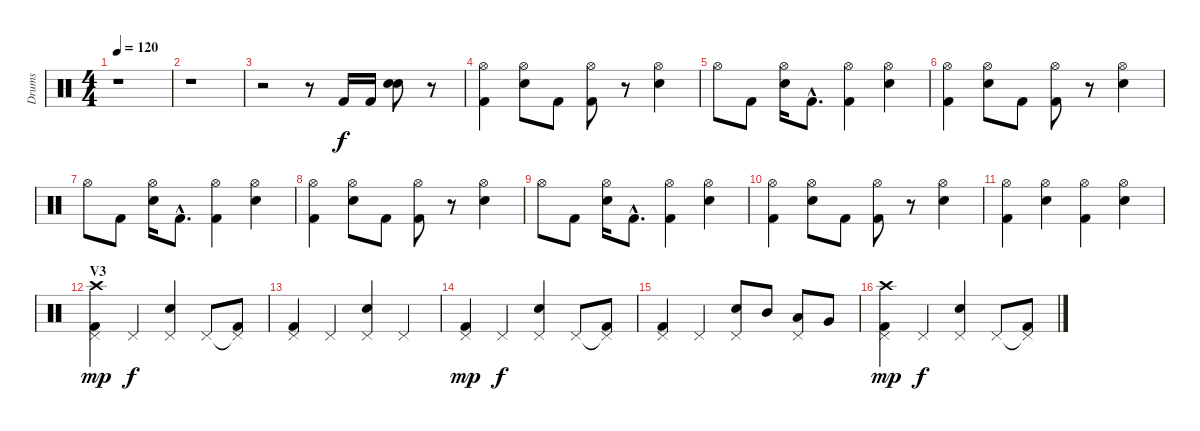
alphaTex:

\track ("Drums" "Drums") {instrument percussion}
\staff {score}
\articulation defaults
\ts (4 4)
\tempo 120
\clef neutral
\ks c
r.1{dy ff} |
r.1 |
r.2 r.8 "Kick (hit) 2".16{dy f} "Kick (hit) 2".16 ("Snare (hit) 2" "Snare (hit) 2").8{bd 120} r.8 |
("Hi-Hat (open)" "Kick (hit) 2").4 ("Hi-Hat (open)" "Snare (hit) 2").8 "Kick (hit) 2".8 ("Hi-Hat (open)" "Kick (hit) 2").8 r.8 ("Hi-Hat (open)" "Snare (hit) 2").4 |
"Hi-Hat (open)".8 "Kick (hit) 2".8 ("Hi-Hat (open)" "Snare (hit) 2").16 "Kick (hit) 2"{hac}.8{d} ("Hi-Hat (open)" "Kick (hit) 2").4 ("Hi-Hat (open)" "Snare (hit) 2").4 |
("Hi-Hat (open)" "Kick (hit) 2").4 ("Hi-Hat (open)" "Snare (hit) 2").8 "Kick (hit) 2".8 ("Hi-Hat (open)" "Kick (hit) 2").8 r.8 ("Hi-Hat (open)" "Snare (hit) 2").4 |
"Hi-Hat (open)".8 "Kick (hit) 2".8 ("Hi-Hat (open)" "Snare (hit) 2").16 "Kick (hit) 2"{hac}.8{d} ("Hi-Hat (open)" "Kick (hit) 2").4 ("Hi-Hat (open)" "Snare (hit) 2").4 |
("Hi-Hat (open)" "Kick (hit) 2").4 ("Hi-Hat (open)" "Snare (hit) 2").8 "Kick (hit) 2".8 ("Hi-Hat (open)" "Kick (hit) 2").8 r.8 ("Hi-Hat (open)" "Snare (hit) 2").4 |
"Hi-Hat (open)".8 "Kick (hit) 2".8 ("Hi-Hat (open)" "Snare (hit) 2").16 "Kick (hit) 2"{hac}.8{d} ("Hi-Hat (open)" "Kick (hit) 2").4 ("Hi-Hat (open)" "Snare (hit) 2").4 |
("Hi-Hat (open)" "Kick (hit) 2").4 ("Hi-Hat (open)" "Snare (hit) 2").8 "Kick (hit) 2".8 ("Hi-Hat (open)" "Kick (hit) 2").8 r.8 ("Hi-Hat (open)" "Snare (hit) 2").4 |
("Hi-Hat (open)" "Kick (hit) 2").4 ("Hi-Hat (open)" "Snare (hit) 2").4 ("Hi-Hat (open)" "Kick (hit) 2").4 ("Hi-Hat (open)" "Snare (hit) 2").4 |
\section ("" "V3")
("Pedal Hi-Hat (hit)" "Crash high (hit)" "Kick (hit) 2").4{dy mp} "Pedal Hi-Hat (hit)".4{dy f} ("Pedal Hi-Hat (hit)" "Snare (hit) 2").4 "Pedal Hi-Hat (hit)".8 ("Pedal Hi-Hat (hit)"{t} "Kick (hit) 2").8 |
("Pedal Hi-Hat (hit)" "Kick (hit) 2").4 "Pedal Hi-Hat (hit)".4 ("Pedal Hi-Hat (hit)" "Snare (hit) 2").4 "Pedal Hi-Hat (hit)".4 |
("Pedal Hi-Hat (hit)" "Kick (hit) 2").4{dy mp} "Pedal Hi-Hat (hit)".4{dy f} ("Pedal Hi-Hat (hit)" "Snare (hit) 2").4 "Pedal Hi-Hat (hit)".8 ("Pedal Hi-Hat (hit)"{t} "Kick (hit) 2").8 |
("Pedal Hi-Hat (hit)" "Kick (hit) 2").4 "Pedal Hi-Hat (hit)".4 ("Pedal Hi-Hat (hit)" "Snare (hit) 2").8 "Mid Tom (hit)".8 ("Pedal Hi-Hat (hit)" "Low Tom (hit)").8 "Very Low Tom (hit)".8 |
("Pedal Hi-Hat (hit)" "Crash high (hit)" "Kick (hit) 2").4{dy mp} "Pedal Hi-Hat (hit)".4{dy f} ("Pedal Hi-Hat (hit)" "Snare (hit) 2").4 "Pedal Hi-Hat (hit)".8 ("Pedal Hi-Hat (hit)"{t} "Kick (hit) 2").8
